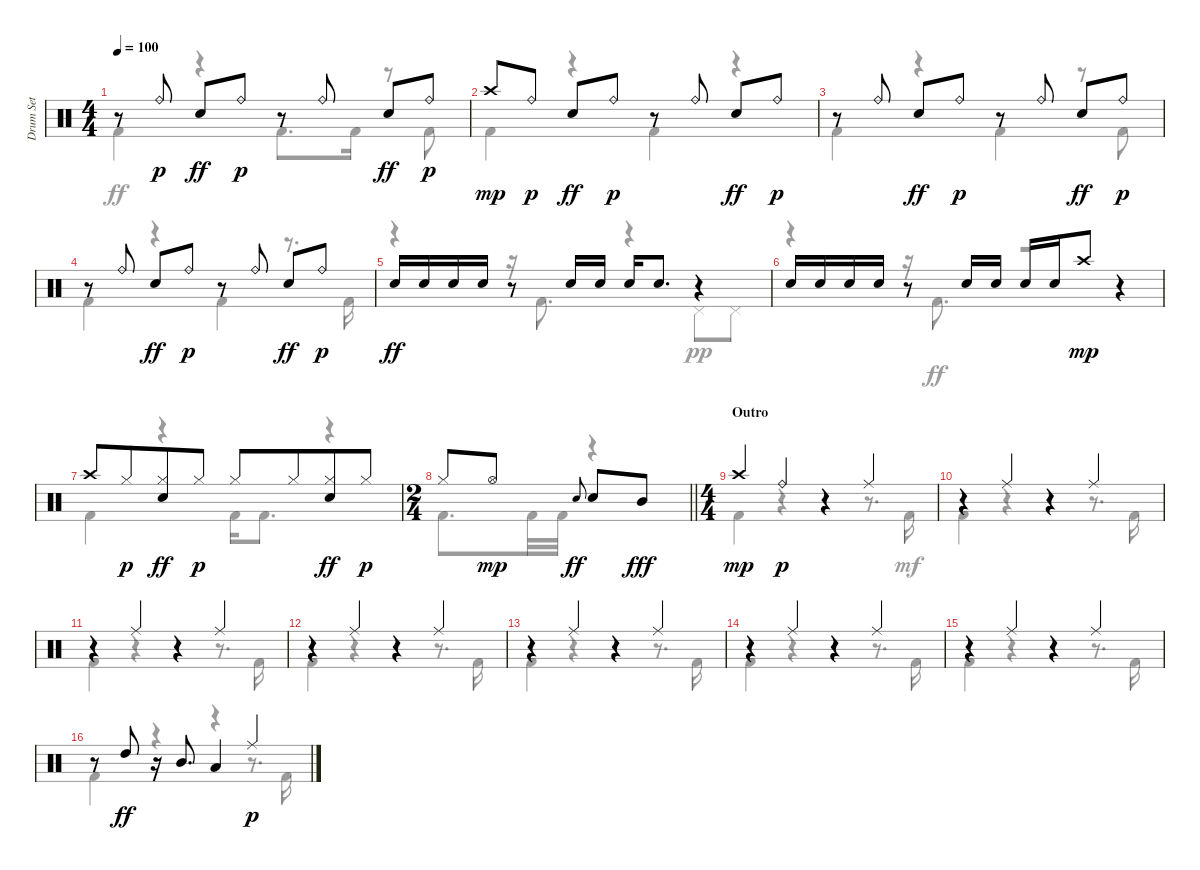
\track ("Drum Set" "Drum Set") {instrument percussion}
\staff {score}
\articulation defaults
\voice
\ts (4 4)
\tempo 100
\clef neutral
\ks c
r.8{dy p} "Ride (bell)".8 "Electric Snare (hit)".8{dy ff} "Ride (bell)".8{dy p} r.8 "Ride (bell)".8 "Electric Snare (hit)".8{dy ff} "Ride (bell)".8{dy p} |
"Crash high (hit)".8{dy mp} "Ride (bell)".8{dy p} "Electric Snare (hit)".8{dy ff} "Ride (bell)".8{dy p} r.8 "Ride (bell)".8 "Electric Snare (hit)".8{dy ff} "Ride (bell)".8{dy p} |
r.8 "Ride (bell)".8 "Electric Snare (hit)".8{dy ff} "Ride (bell)".8{dy p} r.8 "Ride (bell)".8 "Electric Snare (hit)".8{dy ff} "Ride (bell)".8{dy p} |
r.8 "Ride (bell)".8 "Electric Snare (hit)".8{dy ff} "Ride (bell)".8{dy p} r.8 "Ride (bell)".8 "Electric Snare (hit)".8{dy ff} "Ride (bell)".8{dy p} |
"Electric Snare (hit)".16{dy ff} "Electric Snare (hit)".16 "Electric Snare (hit)".16 "Electric Snare (hit)".16 r.8 "Electric Snare (hit)".16 "Electric Snare (hit)".16 "Electric Snare (hit)".16 "Electric Snare (hit)".8{d} r.4 |
\ks aminor "Electric Snare (hit)".16 "Electric Snare (hit)".16 "Electric Snare (hit)".16 "Electric Snare (hit)".16
r.8 "Electric Snare (hit)".16 "Electric Snare (hit)".16 "Electric Snare (hit)".16 "Electric Snare (hit)".16 "Crash high (hit)".8{dy mp volume 0} r.4 |
"Crash high (hit)".8{volume 13} "Hi-Hat (closed)".8{dy p beam merge} ("Hi-Hat (closed)" "Electric Snare (hit)").8{dy ff} "Hi-Hat (closed)".8{dy p} "Hi-Hat (closed)".8 "Hi-Hat (closed)".8{beam merge} ("Hi-Hat (closed)" "Electric Snare (hit)").8{dy ff} "Hi-Hat (closed)".8{dy p} |
\ts (2 4)
\barLineRight lightlight "Hi-Hat (closed)".8 "Hi-Hat (open)".8{dy mp} "Electric Snare (hit)".8{gr onbeat dy ff beam split} "Electric Snare (hit)".8 "Mid Tom (hit)".8{dy fff}
|
\ts (4 4)
\section ("" "Outro")
"Crash high (hit)".4{dy mp} "Ride (bell)".4{dy p} r.4 "Ride (middle)".4 |
r.4 "Ride (middle)".4 r.4 "Ride (middle)".4 |
r.4 "Ride (middle)".4 r.4 "Ride (middle)".4 |
r.4 "Ride (middle)".4 r.4 "Ride (middle)".4 |
r.4 "Ride (middle)".4 r.4 "Ride (middle)".4 |
r.4 "Ride (middle)".4 r.4 "Ride (middle)".4 |
r.4 "Ride (middle)".4 r.4 "Ride (middle)".4 |
r.8 "High Tom (hit)".8{dy ff} r.16 "Mid Tom (hit)".8{d} "Low Tom (hit)".4 "Ride (middle)".4{dy p}
\voice
\clef neutral
\ottava regular
\simile none
\ks c "Kick (hit) 2".4{dy ff}
r.4 "Kick (hit) 2".8{d} "Kick (hit) 2".16 r.8 "Kick (hit) 2".8 |
"Kick (hit) 2".4 r.4 "Kick (hit) 2".4 r.4 |
"Kick (hit) 2".4 r.4 "Kick (hit) 2".4 r.8 "Kick (hit) 2".8 |
"Kick (hit) 2".4 r.4 "Kick (hit) 2".4 r.8{d} "Kick (hit) 2".16 |
r.4 r.16 "Kick (hit) 2".8{d} r.4 "Pedal Hi-Hat (hit)".8{dy pp} "Pedal Hi-Hat (hit)".8 |
\ks aminor
r.4 r.16 "Kick (hit) 2".8{d dy ff} r.2 |
"Kick (hit) 2".4 r.4 "Kick (hit) 2".16 "Kick (hit) 2".8{d} r.4 |
\barLineRight lightlight "Kick (hit) 2".8{d} "Kick (hit) 2".32 "Kick (hit) 2".32
r.4 |
"Kick (hit) 2".4 r.4 r.4 r.8{d} "Kick (hit) 2".16{dy mf} |
"Kick (hit) 2".4 r.4 r.4 r.8{d} "Kick (hit) 2".16 |
"Kick (hit) 2".4 r.4 r.4 r.8{d} "Kick (hit) 2".16 |
"Kick (hit) 2".4 r.4 r.4 r.8{d} "Kick (hit) 2".16 |
"Kick (hit) 2".4 r.4 r.4 r.8{d} "Kick (hit) 2".16 |
"Kick (hit) 2".4 r.4 r.4 r.8{d} "Kick (hit) 2".16 |
"Kick (hit) 2".4 r.4 r.4 r.8{d} "Kick (hit) 2".16 |
"Kick (hit) 2".4 r.4 r.4 r.8{d} "Kick (hit) 2".16
